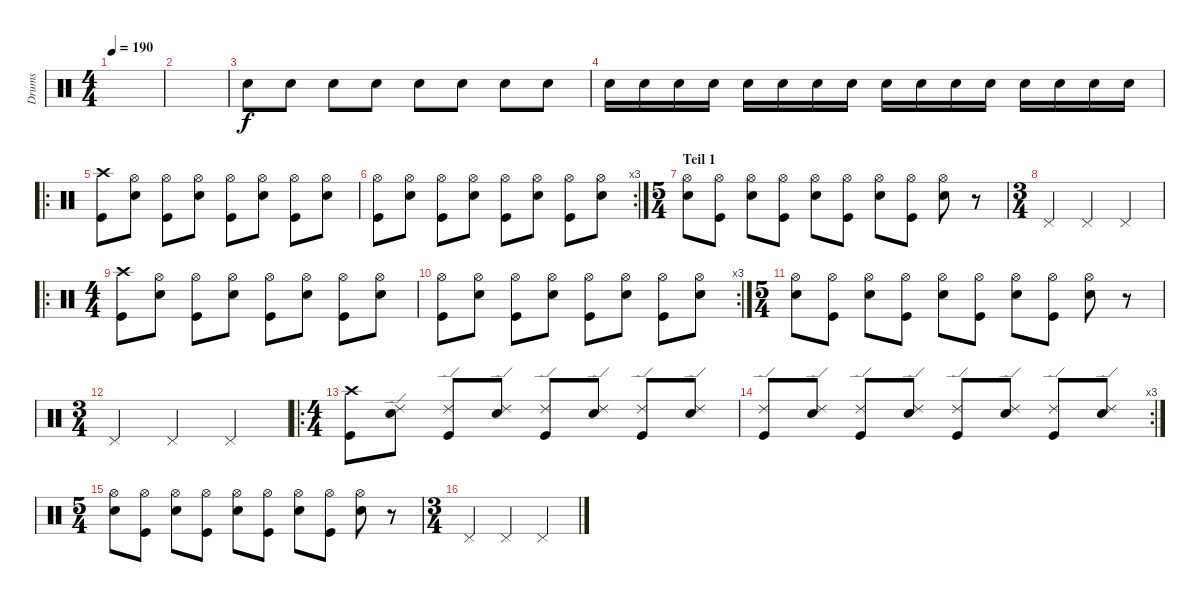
\track ("Drums" "Drums") {instrument percussion}
\staff {score}
\articulation defaults
\ts (4 4)
\tempo 190
\clef neutral
\ks c
|
|
"Electric Snare (hit)".8 "Electric Snare (hit)".8 "Electric Snare (hit)".8 "Electric Snare (hit)".8 "Electric Snare (hit)".8 "Electric Snare (hit)".8 "Electric Snare (hit)".8 "Electric Snare (hit)".8 |
"Electric Snare (hit)".16 "Electric Snare (hit)".16 "Electric Snare (hit)".16 "Electric Snare (hit)".16 "Electric Snare (hit)".16 "Electric Snare (hit)".16 "Electric Snare (hit)".16 "Electric Snare (hit)".16 "Electric Snare (hit)".16 "Electric Snare (hit)".16 "Electric Snare (hit)".16 "Electric Snare (hit)".16 "Electric Snare (hit)".16 "Electric Snare (hit)".16 "Electric Snare (hit)".16 "Electric Snare (hit)".16 |
\ro
("Crash high (hit)" "Kick (hit)").8 ("Hi-Hat (open)" "Electric Snare (hit)").8 ("Hi-Hat (open)" "Kick (hit)").8 ("Hi-Hat (open)" "Electric Snare (hit)").8 ("Hi-Hat (open)" "Kick (hit)").8 ("Hi-Hat (open)" "Electric Snare (hit)").8 ("Hi-Hat (open)" "Kick (hit)").8 ("Hi-Hat (open)" "Electric Snare (hit)").8 |
\rc 3
("Hi-Hat (open)" "Kick (hit)").8 ("Hi-Hat (open)" "Electric Snare (hit)").8 ("Hi-Hat (open)" "Kick (hit)").8 ("Hi-Hat (open)" "Electric Snare (hit)").8 ("Hi-Hat (open)" "Kick (hit)").8 ("Hi-Hat (open)" "Electric Snare (hit)").8 ("Hi-Hat (open)" "Kick (hit)").8 ("Hi-Hat (open)" "Electric Snare (hit)").8 |
\ts (5 4)
\section ("" "Teil 1")
("Hi-Hat (open)" "Electric Snare (hit)").8 ("Hi-Hat (open)" "Kick (hit)").8 ("Hi-Hat (open)" "Electric Snare (hit)").8 ("Hi-Hat (open)" "Kick (hit)").8 ("Hi-Hat (open)" "Electric Snare (hit)").8 ("Hi-Hat (open)" "Kick (hit)").8 ("Hi-Hat (open)" "Electric Snare (hit)").8 ("Hi-Hat (open)" "Kick (hit)").8 ("Hi-Hat (open)" "Electric Snare (hit)").8 r.8 |
\ts (3 4)
"Pedal Hi-Hat (hit)".4 "Pedal Hi-Hat (hit)".4 "Pedal Hi-Hat (hit)".4 |
\ro
\ts (4 4)
("Crash high (hit)" "Kick (hit)").8 ("Hi-Hat (open)" "Electric Snare (hit)").8 ("Hi-Hat (open)" "Kick (hit)").8 ("Hi-Hat (open)" "Electric Snare (hit)").8 ("Hi-Hat (open)" "Kick (hit)").8 ("Hi-Hat (open)" "Electric Snare (hit)").8 ("Hi-Hat (open)" "Kick (hit)").8 ("Hi-Hat (open)" "Electric Snare (hit)").8 |
\rc 3
("Hi-Hat (open)" "Kick (hit)").8 ("Hi-Hat (open)" "Electric Snare (hit)").8 ("Hi-Hat (open)" "Kick (hit)").8 ("Hi-Hat (open)" "Electric Snare (hit)").8 ("Hi-Hat (open)" "Kick (hit)").8 ("Hi-Hat (open)" "Electric Snare (hit)").8 ("Hi-Hat (open)" "Kick (hit)").8 ("Hi-Hat (open)" "Electric Snare (hit)").8 |
\ts (5 4)
("Hi-Hat (open)" "Electric Snare (hit)").8 ("Hi-Hat (open)" "Kick (hit)").8 ("Hi-Hat (open)" "Electric Snare (hit)").8 ("Hi-Hat (open)" "Kick (hit)").8 ("Hi-Hat (open)" "Electric Snare (hit)").8 ("Hi-Hat (open)" "Kick (hit)").8 ("Hi-Hat (open)" "Electric Snare (hit)").8 ("Hi-Hat (open)" "Kick (hit)").8 ("Hi-Hat (open)" "Electric Snare (hit)").8 r.8 |
\ts (3 4)
"Pedal Hi-Hat (hit)".4 "Pedal Hi-Hat (hit)".4 "Pedal Hi-Hat (hit)".4 |
\ro
\ts (4 4)
("Crash high (hit)" "Kick (hit)").8 ("Ride (edge) 2" "Electric Snare (hit)").8 ("Ride (edge) 2" "Kick (hit)").8 ("Ride (edge) 2" "Electric Snare (hit)").8 ("Ride (edge) 2" "Kick (hit)").8 ("Ride (edge) 2" "Electric Snare (hit)").8 ("Ride (edge) 2" "Kick (hit)").8 ("Ride (edge) 2" "Electric Snare (hit)").8 |
\rc 3
("Ride (edge) 2" "Kick (hit)").8 ("Ride (edge) 2" "Electric Snare (hit)").8 ("Ride (edge) 2" "Kick (hit)").8 ("Ride (edge) 2" "Electric Snare (hit)").8 ("Ride (edge) 2" "Kick (hit)").8 ("Ride (edge) 2" "Electric Snare (hit)").8 ("Ride (edge) 2" "Kick (hit)").8 ("Ride (edge) 2" "Electric Snare (hit)").8 |
\ts (5 4)
("Hi-Hat (open)" "Electric Snare (hit)").8 ("Hi-Hat (open)" "Kick (hit)").8 ("Hi-Hat (open)" "Electric Snare (hit)").8 ("Hi-Hat (open)" "Kick (hit)").8 ("Hi-Hat (open)" "Electric Snare (hit)").8 ("Hi-Hat (open)" "Kick (hit)").8 ("Hi-Hat (open)" "Electric Snare (hit)").8 ("Hi-Hat (open)" "Kick (hit)").8 ("Hi-Hat (open)" "Electric Snare (hit)").8 r.8 |
\ts (3 4)
"Pedal Hi-Hat (hit)".4 "Pedal Hi-Hat (hit)".4 "Pedal Hi-Hat (hit)".4
